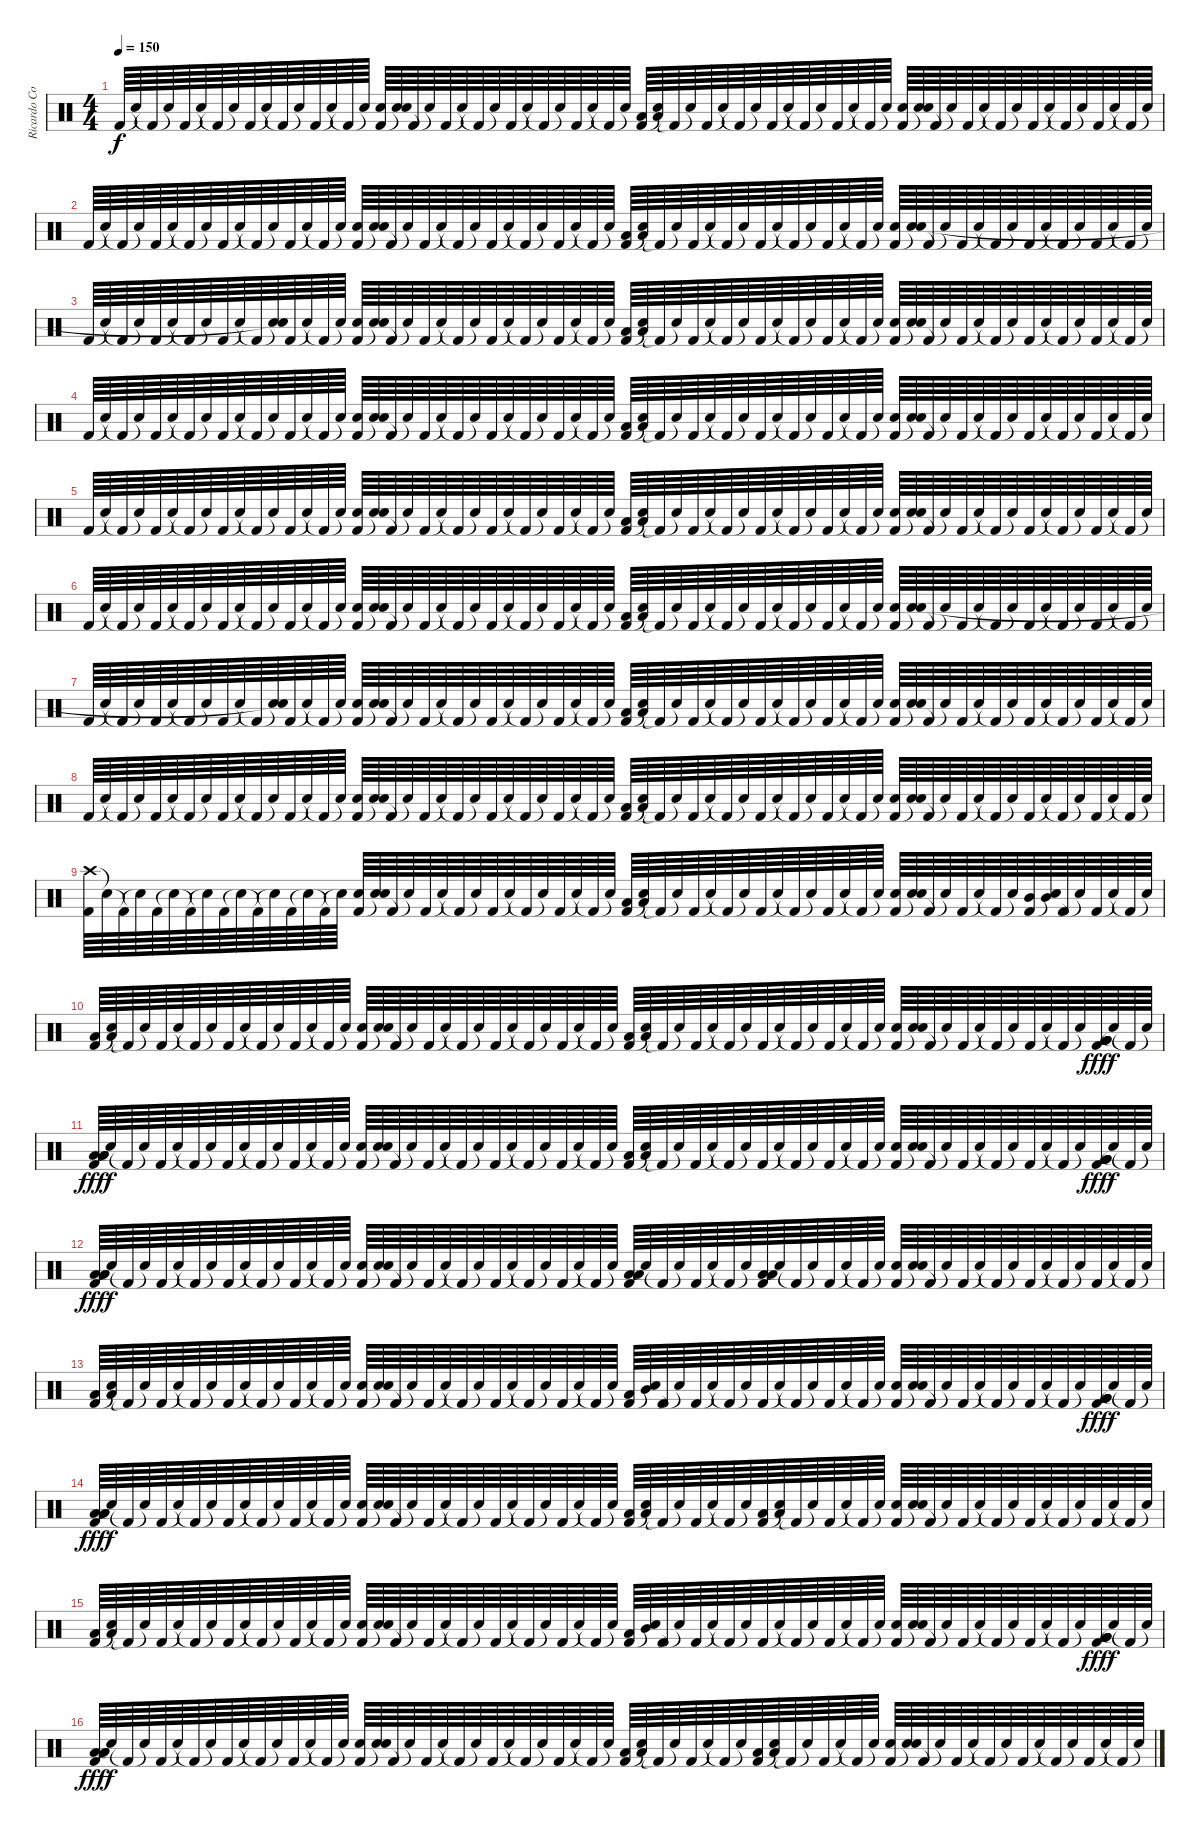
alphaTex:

\track ("Ricardo Confessori" "Ricardo Co") {instrument percussion}
\staff {score}
\articulation defaults
\ts (4 4)
\tempo 150
\clef neutral
\ks c "Kick (hit) 2".64{dy f} "Snare (hit)"{t}.64 "Kick (hit) 2"{t}.64 "Snare (hit)"{t}.64 "Kick (hit) 2".64 "Snare (hit)"{t}.64 "Kick (hit) 2"{t}.64 "Snare (hit)"{t}.64 "Kick (hit) 2".64 "Snare (hit)"{t}.64 "Kick (hit) 2"{t}.64 "Snare (hit)"{t}.64 "Kick (hit) 2".64 "Snare (hit)"{t}.64 "Kick (hit) 2"{t}.64 "Snare (hit)"{t}.64
("Electric Snare (hit)" "Kick (hit) 2").64 ("Electric Snare (hit)" "Snare (hit)"{t}).64 "Kick (hit) 2"{t}.64 "Snare (hit)"{t}.64 "Kick (hit) 2".64 "Snare (hit)"{t}.64 "Kick (hit) 2"{t}.64 "Snare (hit)"{t}.64 "Kick (hit) 2".64 "Snare (hit)"{t}.64 "Kick (hit) 2"{t}.64 "Snare (hit)"{t}.64 "Kick (hit) 2".64 "Snare (hit)"{t}.64 "Kick (hit) 2"{t}.64 "Snare (hit)"{t}.64 ("Low Tom (hit)" "Kick (hit) 2").64 ("Low Tom (hit)" "Snare (hit)"{t}).64 "Kick (hit) 2"{t}.64 "Snare (hit)"{t}.64 "Kick (hit) 2".64 "Snare (hit)"{t}.64 "Kick (hit) 2"{t}.64 "Snare (hit)"{t}.64 "Kick (hit) 2".64 "Snare (hit)"{t}.64 "Kick (hit) 2"{t}.64 "Snare (hit)"{t}.64 "Kick (hit) 2".64 "Snare (hit)"{t}.64 "Kick (hit) 2"{t}.64 "Snare (hit)"{t}.64 ("Electric Snare (hit)" "Kick (hit) 2").64 ("Electric Snare (hit)" "Snare (hit)"{t}).64 "Kick (hit) 2"{t}.64 "Snare (hit)"{t}.64 "Kick (hit) 2".64 "Snare (hit)"{t}.64 "Kick (hit) 2"{t}.64 "Snare (hit)"{t}.64 "Kick (hit) 2".64 "Snare (hit)"{t}.64 "Kick (hit) 2"{t}.64 "Snare (hit)"{t}.64 "Kick (hit) 2".64 "Snare (hit)"{t}.64 "Kick (hit) 2"{t}.64 "Snare (hit)"{t}.64 |
"Kick (hit) 2".64 "Snare (hit)"{t}.64 "Kick (hit) 2"{t}.64 "Snare (hit)"{t}.64 "Kick (hit) 2".64 "Snare (hit)"{t}.64 "Kick (hit) 2"{t}.64 "Snare (hit)"{t}.64 "Kick (hit) 2".64 "Snare (hit)"{t}.64 "Kick (hit) 2"{t}.64 "Snare (hit)"{t}.64 "Kick (hit) 2".64 "Snare (hit)"{t}.64 "Kick (hit) 2"{t}.64 "Snare (hit)"{t}.64 ("Electric Snare (hit)" "Kick (hit) 2").64 ("Electric Snare (hit)" "Snare (hit)"{t}).64 "Kick (hit) 2"{t}.64 "Snare (hit)"{t}.64 "Kick (hit) 2".64 "Snare (hit)"{t}.64 "Kick (hit) 2"{t}.64 "Snare (hit)"{t}.64 "Kick (hit) 2".64 "Snare (hit)"{t}.64 "Kick (hit) 2"{t}.64 "Snare (hit)"{t}.64 "Kick (hit) 2".64 "Snare (hit)"{t}.64 "Kick (hit) 2"{t}.64 "Snare (hit)"{t}.64 ("Low Tom (hit)" "Kick (hit) 2").64 ("Low Tom (hit)" "Snare (hit)"{t}).64 "Kick (hit) 2"{t}.64 "Snare (hit)"{t}.64 "Kick (hit) 2".64 "Snare (hit)"{t}.64 "Kick (hit) 2"{t}.64 "Snare (hit)"{t}.64 "Kick (hit) 2".64 "Snare (hit)"{t}.64 "Kick (hit) 2"{t}.64 "Snare (hit)"{t}.64 "Kick (hit) 2".64 "Snare (hit)"{t}.64 "Kick (hit) 2"{t}.64 "Snare (hit)"{t}.64 ("Electric Snare (hit)" "Kick (hit) 2").64 ("Electric Snare (hit)" "Snare (hit)"{t}).64 "Kick (hit) 2"{t}.64 "Snare (hit)"{t}.64 "Kick (hit) 2".64 "Snare (hit)"{t}.64 "Kick (hit) 2"{t}.64 "Snare (hit)"{t}.64 "Kick (hit) 2".64 "Snare (hit)"{t}.64 "Kick (hit) 2"{t}.64 "Snare (hit)"{t}.64 "Kick (hit) 2".64 "Snare (hit)"{t}.64 "Kick (hit) 2"{t}.64 "Snare (hit)"{t}.64 |
"Kick (hit) 2".64 "Snare (hit)"{t}.64 "Kick (hit) 2"{t}.64 "Snare (hit)"{t}.64 "Kick (hit) 2".64 "Snare (hit)"{t}.64 "Kick (hit) 2"{t}.64 "Snare (hit)"{t}.64 "Kick (hit) 2".64 "Snare (hit)"{t}.64 "Kick (hit) 2"{t}.64 ("Snare (hit)"{t} "Snare (hit)"{t}).64 "Kick (hit) 2".64 "Snare (hit)"{t}.64 "Kick (hit) 2"{t}.64 "Snare (hit)"{t}.64 ("Electric Snare (hit)" "Kick (hit) 2").64 ("Electric Snare (hit)" "Snare (hit)"{t}).64 "Kick (hit) 2"{t}.64 "Snare (hit)"{t}.64 "Kick (hit) 2".64 "Snare (hit)"{t}.64 "Kick (hit) 2"{t}.64 "Snare (hit)"{t}.64 "Kick (hit) 2".64 "Snare (hit)"{t}.64 "Kick (hit) 2"{t}.64 "Snare (hit)"{t}.64 "Kick (hit) 2".64 "Snare (hit)"{t}.64 "Kick (hit) 2"{t}.64 "Snare (hit)"{t}.64 ("Low Tom (hit)" "Kick (hit) 2").64 ("Low Tom (hit)" "Snare (hit)"{t}).64 "Kick (hit) 2"{t}.64 "Snare (hit)"{t}.64 "Kick (hit) 2".64 "Snare (hit)"{t}.64 "Kick (hit) 2"{t}.64 "Snare (hit)"{t}.64 "Kick (hit) 2".64 "Snare (hit)"{t}.64 "Kick (hit) 2"{t}.64 "Snare (hit)"{t}.64 "Kick (hit) 2".64 "Snare (hit)"{t}.64 "Kick (hit) 2"{t}.64 "Snare (hit)"{t}.64 ("Electric Snare (hit)" "Kick (hit) 2").64 ("Electric Snare (hit)" "Snare (hit)"{t}).64 "Kick (hit) 2"{t}.64 "Snare (hit)"{t}.64 "Kick (hit) 2".64 "Snare (hit)"{t}.64 "Kick (hit) 2"{t}.64 "Snare (hit)"{t}.64 "Kick (hit) 2".64 "Snare (hit)"{t}.64 "Kick (hit) 2"{t}.64 "Snare (hit)"{t}.64 "Kick (hit) 2".64 "Snare (hit)"{t}.64 "Kick (hit) 2"{t}.64 "Snare (hit)"{t}.64 |
"Kick (hit) 2".64 "Snare (hit)"{t}.64 "Kick (hit) 2"{t}.64 "Snare (hit)"{t}.64 "Kick (hit) 2".64 "Snare (hit)"{t}.64 "Kick (hit) 2"{t}.64 "Snare (hit)"{t}.64 "Kick (hit) 2".64 "Snare (hit)"{t}.64 "Kick (hit) 2"{t}.64 "Snare (hit)"{t}.64 "Kick (hit) 2".64 "Snare (hit)"{t}.64 "Kick (hit) 2"{t}.64 "Snare (hit)"{t}.64 ("Electric Snare (hit)" "Kick (hit) 2").64 ("Electric Snare (hit)" "Snare (hit)"{t}).64 "Kick (hit) 2"{t}.64 "Snare (hit)"{t}.64 "Kick (hit) 2".64 "Snare (hit)"{t}.64 "Kick (hit) 2"{t}.64 "Snare (hit)"{t}.64 "Kick (hit) 2".64 "Snare (hit)"{t}.64 "Kick (hit) 2"{t}.64 "Snare (hit)"{t}.64 "Kick (hit) 2".64 "Snare (hit)"{t}.64 "Kick (hit) 2"{t}.64 "Snare (hit)"{t}.64 ("Low Tom (hit)" "Kick (hit) 2").64 ("Low Tom (hit)" "Snare (hit)"{t}).64 "Kick (hit) 2"{t}.64 "Snare (hit)"{t}.64 "Kick (hit) 2".64 "Snare (hit)"{t}.64 "Kick (hit) 2"{t}.64 "Snare (hit)"{t}.64 "Kick (hit) 2".64 "Snare (hit)"{t}.64 "Kick (hit) 2"{t}.64 "Snare (hit)"{t}.64 "Kick (hit) 2".64 "Snare (hit)"{t}.64 "Kick (hit) 2"{t}.64 "Snare (hit)"{t}.64 ("Electric Snare (hit)" "Kick (hit) 2").64 ("Electric Snare (hit)" "Snare (hit)"{t}).64 "Kick (hit) 2"{t}.64 "Snare (hit)"{t}.64 "Kick (hit) 2".64 "Snare (hit)"{t}.64 "Kick (hit) 2"{t}.64 "Snare (hit)"{t}.64 "Kick (hit) 2".64 "Snare (hit)"{t}.64 "Kick (hit) 2"{t}.64 "Snare (hit)"{t}.64 "Kick (hit) 2".64 "Snare (hit)"{t}.64 "Kick (hit) 2"{t}.64 "Snare (hit)"{t}.64 |
"Kick (hit) 2".64 "Snare (hit)"{t}.64 "Kick (hit) 2"{t}.64 "Snare (hit)"{t}.64 "Kick (hit) 2".64 "Snare (hit)"{t}.64 "Kick (hit) 2"{t}.64 "Snare (hit)"{t}.64 "Kick (hit) 2".64 "Snare (hit)"{t}.64 "Kick (hit) 2"{t}.64 "Snare (hit)"{t}.64 "Kick (hit) 2".64 "Snare (hit)"{t}.64 "Kick (hit) 2"{t}.64 "Snare (hit)"{t}.64 ("Electric Snare (hit)" "Kick (hit) 2").64 ("Electric Snare (hit)" "Snare (hit)"{t}).64 "Kick (hit) 2"{t}.64 "Snare (hit)"{t}.64 "Kick (hit) 2".64 "Snare (hit)"{t}.64 "Kick (hit) 2"{t}.64 "Snare (hit)"{t}.64 "Kick (hit) 2".64 "Snare (hit)"{t}.64 "Kick (hit) 2"{t}.64 "Snare (hit)"{t}.64 "Kick (hit) 2".64 "Snare (hit)"{t}.64 "Kick (hit) 2"{t}.64 "Snare (hit)"{t}.64 ("Low Tom (hit)" "Kick (hit) 2").64 ("Low Tom (hit)" "Snare (hit)"{t}).64 "Kick (hit) 2"{t}.64 "Snare (hit)"{t}.64 "Kick (hit) 2".64 "Snare (hit)"{t}.64 "Kick (hit) 2"{t}.64 "Snare (hit)"{t}.64 "Kick (hit) 2".64 "Snare (hit)"{t}.64 "Kick (hit) 2"{t}.64 "Snare (hit)"{t}.64 "Kick (hit) 2".64 "Snare (hit)"{t}.64 "Kick (hit) 2"{t}.64 "Snare (hit)"{t}.64 ("Electric Snare (hit)" "Kick (hit) 2").64 ("Electric Snare (hit)" "Snare (hit)"{t}).64 "Kick (hit) 2"{t}.64 "Snare (hit)"{t}.64 "Kick (hit) 2".64 "Snare (hit)"{t}.64 "Kick (hit) 2"{t}.64 "Snare (hit)"{t}.64 "Kick (hit) 2".64 "Snare (hit)"{t}.64 "Kick (hit) 2"{t}.64 "Snare (hit)"{t}.64 "Kick (hit) 2".64 "Snare (hit)"{t}.64 "Kick (hit) 2"{t}.64 "Snare (hit)"{t}.64 |
"Kick (hit) 2".64 "Snare (hit)"{t}.64 "Kick (hit) 2"{t}.64 "Snare (hit)"{t}.64 "Kick (hit) 2".64 "Snare (hit)"{t}.64 "Kick (hit) 2"{t}.64 "Snare (hit)"{t}.64 "Kick (hit) 2".64 "Snare (hit)"{t}.64 "Kick (hit) 2"{t}.64 "Snare (hit)"{t}.64 "Kick (hit) 2".64 "Snare (hit)"{t}.64 "Kick (hit) 2"{t}.64 "Snare (hit)"{t}.64 ("Electric Snare (hit)" "Kick (hit) 2").64 ("Electric Snare (hit)" "Snare (hit)"{t}).64 "Kick (hit) 2"{t}.64 "Snare (hit)"{t}.64 "Kick (hit) 2".64 "Snare (hit)"{t}.64 "Kick (hit) 2"{t}.64 "Snare (hit)"{t}.64 "Kick (hit) 2".64 "Snare (hit)"{t}.64 "Kick (hit) 2"{t}.64 "Snare (hit)"{t}.64 "Kick (hit) 2".64 "Snare (hit)"{t}.64 "Kick (hit) 2"{t}.64 "Snare (hit)"{t}.64 ("Low Tom (hit)" "Kick (hit) 2").64 ("Low Tom (hit)" "Snare (hit)"{t}).64 "Kick (hit) 2"{t}.64 "Snare (hit)"{t}.64 "Kick (hit) 2".64 "Snare (hit)"{t}.64 "Kick (hit) 2"{t}.64 "Snare (hit)"{t}.64 "Kick (hit) 2".64 "Snare (hit)"{t}.64 "Kick (hit) 2"{t}.64 "Snare (hit)"{t}.64 "Kick (hit) 2".64 "Snare (hit)"{t}.64 "Kick (hit) 2"{t}.64 "Snare (hit)"{t}.64 ("Electric Snare (hit)" "Kick (hit) 2").64 ("Electric Snare (hit)" "Snare (hit)"{t}).64 "Kick (hit) 2"{t}.64 "Snare (hit)"{t}.64 "Kick (hit) 2".64 "Snare (hit)"{t}.64 "Kick (hit) 2"{t}.64 "Snare (hit)"{t}.64 "Kick (hit) 2".64 "Snare (hit)"{t}.64 "Kick (hit) 2"{t}.64 "Snare (hit)"{t}.64 "Kick (hit) 2".64 "Snare (hit)"{t}.64 "Kick (hit) 2"{t}.64 "Snare (hit)"{t}.64 |
"Kick (hit) 2".64 "Snare (hit)"{t}.64 "Kick (hit) 2"{t}.64 "Snare (hit)"{t}.64 "Kick (hit) 2".64 "Snare (hit)"{t}.64 "Kick (hit) 2"{t}.64 "Snare (hit)"{t}.64 "Kick (hit) 2".64 "Snare (hit)"{t}.64 "Kick (hit) 2"{t}.64 ("Snare (hit)"{t} "Snare (hit)"{t}).64 "Kick (hit) 2".64 "Snare (hit)"{t}.64 "Kick (hit) 2"{t}.64 "Snare (hit)"{t}.64 ("Electric Snare (hit)" "Kick (hit) 2").64 ("Electric Snare (hit)" "Snare (hit)"{t}).64 "Kick (hit) 2"{t}.64 "Snare (hit)"{t}.64 "Kick (hit) 2".64 "Snare (hit)"{t}.64 "Kick (hit) 2"{t}.64 "Snare (hit)"{t}.64 "Kick (hit) 2".64 "Snare (hit)"{t}.64 "Kick (hit) 2"{t}.64 "Snare (hit)"{t}.64 "Kick (hit) 2".64 "Snare (hit)"{t}.64 "Kick (hit) 2"{t}.64 "Snare (hit)"{t}.64 ("Low Tom (hit)" "Kick (hit) 2").64 ("Low Tom (hit)" "Snare (hit)"{t}).64 "Kick (hit) 2"{t}.64 "Snare (hit)"{t}.64 "Kick (hit) 2".64 "Snare (hit)"{t}.64 "Kick (hit) 2"{t}.64 "Snare (hit)"{t}.64 "Kick (hit) 2".64 "Snare (hit)"{t}.64 "Kick (hit) 2"{t}.64 "Snare (hit)"{t}.64 "Kick (hit) 2".64 "Snare (hit)"{t}.64 "Kick (hit) 2"{t}.64 "Snare (hit)"{t}.64 ("Electric Snare (hit)" "Kick (hit) 2").64 ("Electric Snare (hit)" "Snare (hit)"{t}).64 "Kick (hit) 2"{t}.64 "Snare (hit)"{t}.64 "Kick (hit) 2".64 "Snare (hit)"{t}.64 "Kick (hit) 2"{t}.64 "Snare (hit)"{t}.64 "Kick (hit) 2".64 "Snare (hit)"{t}.64 "Kick (hit) 2"{t}.64 "Snare (hit)"{t}.64 "Kick (hit) 2".64 "Snare (hit)"{t}.64 "Kick (hit) 2"{t}.64 "Snare (hit)"{t}.64 |
"Kick (hit) 2".64 "Snare (hit)"{t}.64 "Kick (hit) 2"{t}.64 "Snare (hit)"{t}.64 "Kick (hit) 2".64 "Snare (hit)"{t}.64 "Kick (hit) 2"{t}.64 "Snare (hit)"{t}.64 "Kick (hit) 2".64 "Snare (hit)"{t}.64 "Kick (hit) 2"{t}.64 "Snare (hit)"{t}.64 "Kick (hit) 2".64 "Snare (hit)"{t}.64 "Kick (hit) 2"{t}.64 "Snare (hit)"{t}.64 ("Electric Snare (hit)" "Kick (hit) 2").64 ("Electric Snare (hit)" "Snare (hit)"{t}).64 "Kick (hit) 2"{t}.64 "Snare (hit)"{t}.64 "Kick (hit) 2".64 "Snare (hit)"{t}.64 "Kick (hit) 2"{t}.64 "Snare (hit)"{t}.64 "Kick (hit) 2".64 "Snare (hit)"{t}.64 "Kick (hit) 2"{t}.64 "Snare (hit)"{t}.64 "Kick (hit) 2".64 "Snare (hit)"{t}.64 "Kick (hit) 2"{t}.64 "Snare (hit)"{t}.64 ("Low Tom (hit)" "Kick (hit) 2").64 ("Low Tom (hit)" "Snare (hit)"{t}).64 "Kick (hit) 2"{t}.64 "Snare (hit)"{t}.64 "Kick (hit) 2".64 "Snare (hit)"{t}.64 "Kick (hit) 2"{t}.64 "Snare (hit)"{t}.64 "Kick (hit) 2".64 "Snare (hit)"{t}.64 "Kick (hit) 2"{t}.64 "Snare (hit)"{t}.64 "Kick (hit) 2".64 "Snare (hit)"{t}.64 "Kick (hit) 2"{t}.64 "Snare (hit)"{t}.64 ("Electric Snare (hit)" "Kick (hit) 2").64 ("Electric Snare (hit)" "Snare (hit)"{t}).64 "Kick (hit) 2"{t}.64 "Snare (hit)"{t}.64 "Kick (hit) 2".64 "Snare (hit)"{t}.64 "Kick (hit) 2"{t}.64 "Snare (hit)"{t}.64 "Kick (hit) 2".64 "Snare (hit)"{t}.64 "Kick (hit) 2"{t}.64 "Snare (hit)"{t}.64 "Kick (hit) 2".64 "Snare (hit)"{t}.64 "Kick (hit) 2"{t}.64 "Snare (hit)"{t}.64 |
("Crash high (hit)" "Kick (hit) 2").64 "Snare (hit)"{t}.64 "Kick (hit) 2"{t}.64 "Snare (hit)"{t}.64 "Kick (hit) 2".64 "Snare (hit)"{t}.64 "Kick (hit) 2"{t}.64 "Snare (hit)"{t}.64 "Kick (hit) 2".64 "Snare (hit)"{t}.64 "Kick (hit) 2"{t}.64 "Snare (hit)"{t}.64 "Kick (hit) 2".64 "Snare (hit)"{t}.64 "Kick (hit) 2"{t}.64 "Snare (hit)"{t}.64 ("Electric Snare (hit)" "Kick (hit) 2").64 ("Electric Snare (hit)" "Snare (hit)"{t}).64 "Kick (hit) 2"{t}.64 "Snare (hit)"{t}.64 "Kick (hit) 2".64 "Snare (hit)"{t}.64 "Kick (hit) 2"{t}.64 "Snare (hit)"{t}.64 "Kick (hit) 2".64 "Snare (hit)"{t}.64 "Kick (hit) 2"{t}.64 "Snare (hit)"{t}.64 "Kick (hit) 2".64 "Snare (hit)"{t}.64 "Kick (hit) 2"{t}.64 "Snare (hit)"{t}.64 ("Low Tom (hit)" "Kick (hit) 2").64 ("Low Tom (hit)" "Snare (hit)"{t}).64 "Kick (hit) 2"{t}.64 "Snare (hit)"{t}.64 "Kick (hit) 2".64 "Snare (hit)"{t}.64 "Kick (hit) 2"{t}.64 "Snare (hit)"{t}.64 "Kick (hit) 2".64 "Snare (hit)"{t}.64 "Kick (hit) 2"{t}.64 "Snare (hit)"{t}.64 "Kick (hit) 2".64 "Snare (hit)"{t}.64 "Kick (hit) 2"{t}.64 "Snare (hit)"{t}.64 ("Electric Snare (hit)" "Kick (hit) 2").64 ("Electric Snare (hit)" "Snare (hit)"{t}).64 "Kick (hit) 2"{t}.64 "Snare (hit)"{t}.64 "Kick (hit) 2".64 "Snare (hit)"{t}.64 "Kick (hit) 2"{t}.64 "Snare (hit)"{t}.64 ("Mid Tom (hit)" "Kick (hit) 2").64 ("Mid Tom (hit)" "Snare (hit)"{t}).64 "Kick (hit) 2"{t}.64 "Snare (hit)"{t}.64 "Kick (hit) 2".64 "Snare (hit)"{t}.64 "Kick (hit) 2"{t}.64 "Snare (hit)"{t}.64 |
("Low Tom (hit)" "Kick (hit) 2").64 ("Low Tom (hit)" "Snare (hit)"{t}).64 "Kick (hit) 2"{t}.64 "Snare (hit)"{t}.64 "Kick (hit) 2".64 "Snare (hit)"{t}.64 "Kick (hit) 2"{t}.64 "Snare (hit)"{t}.64 "Kick (hit) 2".64 "Snare (hit)"{t}.64 "Kick (hit) 2"{t}.64 "Snare (hit)"{t}.64 "Kick (hit) 2".64 "Snare (hit)"{t}.64 "Kick (hit) 2"{t}.64 "Snare (hit)"{t}.64 ("Electric Snare (hit)" "Kick (hit) 2").64 ("Electric Snare (hit)" "Snare (hit)"{t}).64 "Kick (hit) 2"{t}.64 "Snare (hit)"{t}.64 "Kick (hit) 2".64 "Snare (hit)"{t}.64 "Kick (hit) 2"{t}.64 "Snare (hit)"{t}.64 "Kick (hit) 2".64 "Snare (hit)"{t}.64 "Kick (hit) 2"{t}.64 "Snare (hit)"{t}.64 "Kick (hit) 2".64 "Snare (hit)"{t}.64 "Kick (hit) 2"{t}.64 "Snare (hit)"{t}.64 ("Low Tom (hit)" "Kick (hit) 2").64 ("Low Tom (hit)" "Snare (hit)"{t}).64 "Kick (hit) 2"{t}.64 "Snare (hit)"{t}.64 "Kick (hit) 2".64 "Snare (hit)"{t}.64 "Kick (hit) 2"{t}.64 "Snare (hit)"{t}.64 "Kick (hit) 2".64 "Snare (hit)"{t}.64 "Kick (hit) 2"{t}.64 "Snare (hit)"{t}.64 "Kick (hit) 2".64 "Snare (hit)"{t}.64 "Kick (hit) 2"{t}.64 "Snare (hit)"{t}.64 ("Electric Snare (hit)" "Kick (hit) 2").64 ("Electric Snare (hit)" "Snare (hit)"{t}).64 "Kick (hit) 2"{t}.64 "Snare (hit)"{t}.64 "Kick (hit) 2".64 "Snare (hit)"{t}.64 "Kick (hit) 2"{t}.64 "Snare (hit)"{t}.64 "Kick (hit) 2".64 "Snare (hit)"{t}.64 "Kick (hit) 2"{t}.64 "Snare (hit)"{t}.64 ("Very Low Tom (hit)" "Very Low Tom (hit)" "Very Low Tom (hit)" "Kick (hit) 2").64{dy fff} "Snare (hit)"{t}.64{dy f} "Kick (hit) 2"{t}.64 "Snare (hit)"{t}.64 |
("Low Floor Tom (hit)" "Low Floor Tom (hit)" "Low Floor Tom (hit)" "Kick (hit) 2").64{dy fff} "Snare (hit)"{t}.64{dy f} "Kick (hit) 2"{t}.64 "Snare (hit)"{t}.64 "Kick (hit) 2".64 "Snare (hit)"{t}.64 "Kick (hit) 2"{t}.64 "Snare (hit)"{t}.64 "Kick (hit) 2".64 "Snare (hit)"{t}.64 "Kick (hit) 2"{t}.64 "Snare (hit)"{t}.64 "Kick (hit) 2".64 "Snare (hit)"{t}.64 "Kick (hit) 2"{t}.64 "Snare (hit)"{t}.64 ("Electric Snare (hit)" "Kick (hit) 2").64 ("Electric Snare (hit)" "Snare (hit)"{t}).64 "Kick (hit) 2"{t}.64 "Snare (hit)"{t}.64 "Kick (hit) 2".64 "Snare (hit)"{t}.64 "Kick (hit) 2"{t}.64 "Snare (hit)"{t}.64 "Kick (hit) 2".64 "Snare (hit)"{t}.64 "Kick (hit) 2"{t}.64 "Snare (hit)"{t}.64 "Kick (hit) 2".64 "Snare (hit)"{t}.64 "Kick (hit) 2"{t}.64 "Snare (hit)"{t}.64 ("Low Tom (hit)" "Kick (hit) 2").64 ("Low Tom (hit)" "Snare (hit)"{t}).64 "Kick (hit) 2"{t}.64 "Snare (hit)"{t}.64 "Kick (hit) 2".64 "Snare (hit)"{t}.64 "Kick (hit) 2"{t}.64 "Snare (hit)"{t}.64 "Kick (hit) 2".64 "Snare (hit)"{t}.64 "Kick (hit) 2"{t}.64 "Snare (hit)"{t}.64 "Kick (hit) 2".64 "Snare (hit)"{t}.64 "Kick (hit) 2"{t}.64 "Snare (hit)"{t}.64 ("Electric Snare (hit)" "Kick (hit) 2").64 ("Electric Snare (hit)" "Snare (hit)"{t}).64 "Kick (hit) 2"{t}.64 "Snare (hit)"{t}.64 "Kick (hit) 2".64 "Snare (hit)"{t}.64 "Kick (hit) 2"{t}.64 "Snare (hit)"{t}.64 "Kick (hit) 2".64 "Snare (hit)"{t}.64 "Kick (hit) 2"{t}.64 "Snare (hit)"{t}.64 ("Very Low Tom (hit)" "Very Low Tom (hit)" "Very Low Tom (hit)" "Kick (hit) 2").64{dy fff} "Snare (hit)"{t}.64{dy f} "Kick (hit) 2"{t}.64 "Snare (hit)"{t}.64 |
("Low Floor Tom (hit)" "Low Floor Tom (hit)" "Low Floor Tom (hit)" "Kick (hit) 2").64{dy fff} "Snare (hit)"{t}.64{dy f} "Kick (hit) 2"{t}.64 "Snare (hit)"{t}.64 "Kick (hit) 2".64 "Snare (hit)"{t}.64 "Kick (hit) 2"{t}.64 "Snare (hit)"{t}.64 "Kick (hit) 2".64 "Snare (hit)"{t}.64 "Kick (hit) 2"{t}.64 "Snare (hit)"{t}.64 "Kick (hit) 2".64 "Snare (hit)"{t}.64 "Kick (hit) 2"{t}.64 "Snare (hit)"{t}.64 ("Electric Snare (hit)" "Kick (hit) 2").64 ("Electric Snare (hit)" "Snare (hit)"{t}).64 "Kick (hit) 2"{t}.64 "Snare (hit)"{t}.64 "Kick (hit) 2".64 "Snare (hit)"{t}.64 "Kick (hit) 2"{t}.64 "Snare (hit)"{t}.64 "Kick (hit) 2".64 "Snare (hit)"{t}.64 "Kick (hit) 2"{t}.64 "Snare (hit)"{t}.64 "Kick (hit) 2".64 "Snare (hit)"{t}.64 "Kick (hit) 2"{t}.64 "Snare (hit)"{t}.64 ("Low Tom (hit)" "Low Tom (hit)" "Kick (hit) 2").64 "Snare (hit)"{t}.64 "Kick (hit) 2"{t}.64 "Snare (hit)"{t}.64 "Kick (hit) 2".64 "Snare (hit)"{t}.64 "Kick (hit) 2"{t}.64 "Snare (hit)"{t}.64 ("Low Tom (hit)" "Low Tom (hit)" "Kick (hit) 2").64 "Snare (hit)"{t}.64 "Kick (hit) 2"{t}.64 "Snare (hit)"{t}.64 "Kick (hit) 2".64 "Snare (hit)"{t}.64 "Kick (hit) 2"{t}.64 "Snare (hit)"{t}.64 ("Electric Snare (hit)" "Kick (hit) 2").64 ("Electric Snare (hit)" "Snare (hit)"{t}).64 "Kick (hit) 2"{t}.64 "Snare (hit)"{t}.64 "Kick (hit) 2".64 "Snare (hit)"{t}.64 "Kick (hit) 2"{t}.64 "Snare (hit)"{t}.64 "Kick (hit) 2".64 "Snare (hit)"{t}.64 "Kick (hit) 2"{t}.64 "Snare (hit)"{t}.64 "Kick (hit) 2".64 "Snare (hit)"{t}.64 "Kick (hit) 2"{t}.64 "Snare (hit)"{t}.64 |
("Low Tom (hit)" "Kick (hit) 2").64 ("Low Tom (hit)" "Snare (hit)"{t}).64 "Kick (hit) 2"{t}.64 "Snare (hit)"{t}.64 "Kick (hit) 2".64 "Snare (hit)"{t}.64 "Kick (hit) 2"{t}.64 "Snare (hit)"{t}.64 "Kick (hit) 2".64 "Snare (hit)"{t}.64 "Kick (hit) 2"{t}.64 "Snare (hit)"{t}.64 "Kick (hit) 2".64 "Snare (hit)"{t}.64 "Kick (hit) 2"{t}.64 "Snare (hit)"{t}.64 ("Electric Snare (hit)" "Kick (hit) 2").64 ("Electric Snare (hit)" "Snare (hit)"{t}).64 "Kick (hit) 2"{t}.64 "Snare (hit)"{t}.64 "Kick (hit) 2".64 "Snare (hit)"{t}.64 "Kick (hit) 2"{t}.64 "Snare (hit)"{t}.64 "Kick (hit) 2".64 "Snare (hit)"{t}.64 "Kick (hit) 2"{t}.64 "Snare (hit)"{t}.64 "Kick (hit) 2".64 "Snare (hit)"{t}.64 "Kick (hit) 2"{t}.64 "Snare (hit)"{t}.64 ("Low Tom (hit)" "Kick (hit) 2").64 ("Mid Tom (hit)" "Snare (hit)"{t}).64 "Kick (hit) 2"{t}.64 "Snare (hit)"{t}.64 "Kick (hit) 2".64 "Snare (hit)"{t}.64 "Kick (hit) 2"{t}.64 "Snare (hit)"{t}.64 "Kick (hit) 2".64 "Snare (hit)"{t}.64 "Kick (hit) 2"{t}.64 "Snare (hit)"{t}.64 "Kick (hit) 2".64 "Snare (hit)"{t}.64 "Kick (hit) 2"{t}.64 "Snare (hit)"{t}.64 ("Electric Snare (hit)" "Kick (hit) 2").64 ("Electric Snare (hit)" "Snare (hit)"{t}).64 "Kick (hit) 2"{t}.64 "Snare (hit)"{t}.64 "Kick (hit) 2".64 "Snare (hit)"{t}.64 "Kick (hit) 2"{t}.64 "Snare (hit)"{t}.64 "Kick (hit) 2".64 "Snare (hit)"{t}.64 "Kick (hit) 2"{t}.64 "Snare (hit)"{t}.64 ("Very Low Tom (hit)" "Very Low Tom (hit)" "Very Low Tom (hit)" "Kick (hit) 2").64{dy fff} "Snare (hit)"{t}.64{dy f} "Kick (hit) 2"{t}.64 "Snare (hit)"{t}.64 |
("Low Floor Tom (hit)" "Low Floor Tom (hit)" "Low Floor Tom (hit)" "Kick (hit) 2").64{dy fff} "Snare (hit)"{t}.64{dy f} "Kick (hit) 2"{t}.64 "Snare (hit)"{t}.64 "Kick (hit) 2".64 "Snare (hit)"{t}.64 "Kick (hit) 2"{t}.64 "Snare (hit)"{t}.64 "Kick (hit) 2".64 "Snare (hit)"{t}.64 "Kick (hit) 2"{t}.64 "Snare (hit)"{t}.64 "Kick (hit) 2".64 "Snare (hit)"{t}.64 "Kick (hit) 2"{t}.64 "Snare (hit)"{t}.64 ("Electric Snare (hit)" "Kick (hit) 2").64 ("Electric Snare (hit)" "Snare (hit)"{t}).64 "Kick (hit) 2"{t}.64 "Snare (hit)"{t}.64 "Kick (hit) 2".64 "Snare (hit)"{t}.64 "Kick (hit) 2"{t}.64 "Snare (hit)"{t}.64 "Kick (hit) 2".64 "Snare (hit)"{t}.64 "Kick (hit) 2"{t}.64 "Snare (hit)"{t}.64 "Kick (hit) 2".64 "Snare (hit)"{t}.64 "Kick (hit) 2"{t}.64 "Snare (hit)"{t}.64 ("Low Tom (hit)" "Kick (hit) 2").64 ("Low Tom (hit)" "Snare (hit)"{t}).64 "Kick (hit) 2"{t}.64 "Snare (hit)"{t}.64 "Kick (hit) 2".64 "Snare (hit)"{t}.64 "Kick (hit) 2"{t}.64 "Snare (hit)"{t}.64 ("Low Tom (hit)" "Kick (hit) 2").64 ("Low Tom (hit)" "Snare (hit)"{t}).64 "Kick (hit) 2"{t}.64 "Snare (hit)"{t}.64 "Kick (hit) 2".64 "Snare (hit)"{t}.64 "Kick (hit) 2"{t}.64 "Snare (hit)"{t}.64 ("Electric Snare (hit)" "Kick (hit) 2").64 ("Electric Snare (hit)" "Snare (hit)"{t}).64 "Kick (hit) 2"{t}.64 "Snare (hit)"{t}.64 "Kick (hit) 2".64 "Snare (hit)"{t}.64 "Kick (hit) 2"{t}.64 "Snare (hit)"{t}.64 "Kick (hit) 2".64 "Snare (hit)"{t}.64 "Kick (hit) 2"{t}.64 "Snare (hit)"{t}.64 "Kick (hit) 2".64 "Snare (hit)"{t}.64 "Kick (hit) 2"{t}.64 "Snare (hit)"{t}.64 |
("Low Tom (hit)" "Kick (hit) 2").64 ("Low Tom (hit)" "Snare (hit)"{t}).64 "Kick (hit) 2"{t}.64 "Snare (hit)"{t}.64 "Kick (hit) 2".64 "Snare (hit)"{t}.64 "Kick (hit) 2"{t}.64 "Snare (hit)"{t}.64 "Kick (hit) 2".64 "Snare (hit)"{t}.64 "Kick (hit) 2"{t}.64 "Snare (hit)"{t}.64 "Kick (hit) 2".64 "Snare (hit)"{t}.64 "Kick (hit) 2"{t}.64 "Snare (hit)"{t}.64 ("Electric Snare (hit)" "Kick (hit) 2").64 ("Electric Snare (hit)" "Snare (hit)"{t}).64 "Kick (hit) 2"{t}.64 "Snare (hit)"{t}.64 "Kick (hit) 2".64 "Snare (hit)"{t}.64 "Kick (hit) 2"{t}.64 "Snare (hit)"{t}.64 "Kick (hit) 2".64 "Snare (hit)"{t}.64 "Kick (hit) 2"{t}.64 "Snare (hit)"{t}.64 "Kick (hit) 2".64 "Snare (hit)"{t}.64 "Kick (hit) 2"{t}.64 "Snare (hit)"{t}.64 ("Low Tom (hit)" "Kick (hit) 2").64 ("Mid Tom (hit)" "Snare (hit)"{t}).64 "Kick (hit) 2"{t}.64 "Snare (hit)"{t}.64 "Kick (hit) 2".64 "Snare (hit)"{t}.64 "Kick (hit) 2"{t}.64 "Snare (hit)"{t}.64 "Kick (hit) 2".64 "Snare (hit)"{t}.64 "Kick (hit) 2"{t}.64 "Snare (hit)"{t}.64 "Kick (hit) 2".64 "Snare (hit)"{t}.64 "Kick (hit) 2"{t}.64 "Snare (hit)"{t}.64 ("Electric Snare (hit)" "Kick (hit) 2").64 ("Electric Snare (hit)" "Snare (hit)"{t}).64 "Kick (hit) 2"{t}.64 "Snare (hit)"{t}.64 "Kick (hit) 2".64 "Snare (hit)"{t}.64 "Kick (hit) 2"{t}.64 "Snare (hit)"{t}.64 "Kick (hit) 2".64 "Snare (hit)"{t}.64 "Kick (hit) 2"{t}.64 "Snare (hit)"{t}.64 ("Very Low Tom (hit)" "Very Low Tom (hit)" "Very Low Tom (hit)" "Kick (hit) 2").64{dy fff} "Snare (hit)"{t}.64{dy f} "Kick (hit) 2"{t}.64 "Snare (hit)"{t}.64 |
("Low Floor Tom (hit)" "Low Floor Tom (hit)" "Low Floor Tom (hit)" "Kick (hit) 2").64{dy fff} "Snare (hit)"{t}.64{dy f} "Kick (hit) 2"{t}.64 "Snare (hit)"{t}.64 "Kick (hit) 2".64 "Snare (hit)"{t}.64 "Kick (hit) 2"{t}.64 "Snare (hit)"{t}.64 "Kick (hit) 2".64 "Snare (hit)"{t}.64 "Kick (hit) 2"{t}.64 "Snare (hit)"{t}.64 "Kick (hit) 2".64 "Snare (hit)"{t}.64 "Kick (hit) 2"{t}.64 "Snare (hit)"{t}.64 ("Electric Snare (hit)" "Kick (hit) 2").64 ("Electric Snare (hit)" "Snare (hit)"{t}).64 "Kick (hit) 2"{t}.64 "Snare (hit)"{t}.64 "Kick (hit) 2".64 "Snare (hit)"{t}.64 "Kick (hit) 2"{t}.64 "Snare (hit)"{t}.64 "Kick (hit) 2".64 "Snare (hit)"{t}.64 "Kick (hit) 2"{t}.64 "Snare (hit)"{t}.64 "Kick (hit) 2".64 "Snare (hit)"{t}.64 "Kick (hit) 2"{t}.64 "Snare (hit)"{t}.64 ("Low Tom (hit)" "Kick (hit) 2").64 ("Low Tom (hit)" "Snare (hit)"{t}).64 "Kick (hit) 2"{t}.64 "Snare (hit)"{t}.64 "Kick (hit) 2".64 "Snare (hit)"{t}.64 "Kick (hit) 2"{t}.64 "Snare (hit)"{t}.64 ("Low Tom (hit)" "Kick (hit) 2").64 ("Low Tom (hit)" "Snare (hit)"{t}).64 "Kick (hit) 2"{t}.64 "Snare (hit)"{t}.64 "Kick (hit) 2".64 "Snare (hit)"{t}.64 "Kick (hit) 2"{t}.64 "Snare (hit)"{t}.64 ("Electric Snare (hit)" "Kick (hit) 2").64 ("Electric Snare (hit)" "Snare (hit)"{t}).64 "Kick (hit) 2"{t}.64 "Snare (hit)"{t}.64 "Kick (hit) 2".64 "Snare (hit)"{t}.64 "Kick (hit) 2"{t}.64 "Snare (hit)"{t}.64 "Kick (hit) 2".64 "Snare (hit)"{t}.64 "Kick (hit) 2"{t}.64 "Snare (hit)"{t}.64 "Kick (hit) 2".64 "Snare (hit)"{t}.64 "Kick (hit) 2"{t}.64 "Snare (hit)"{t}.64
